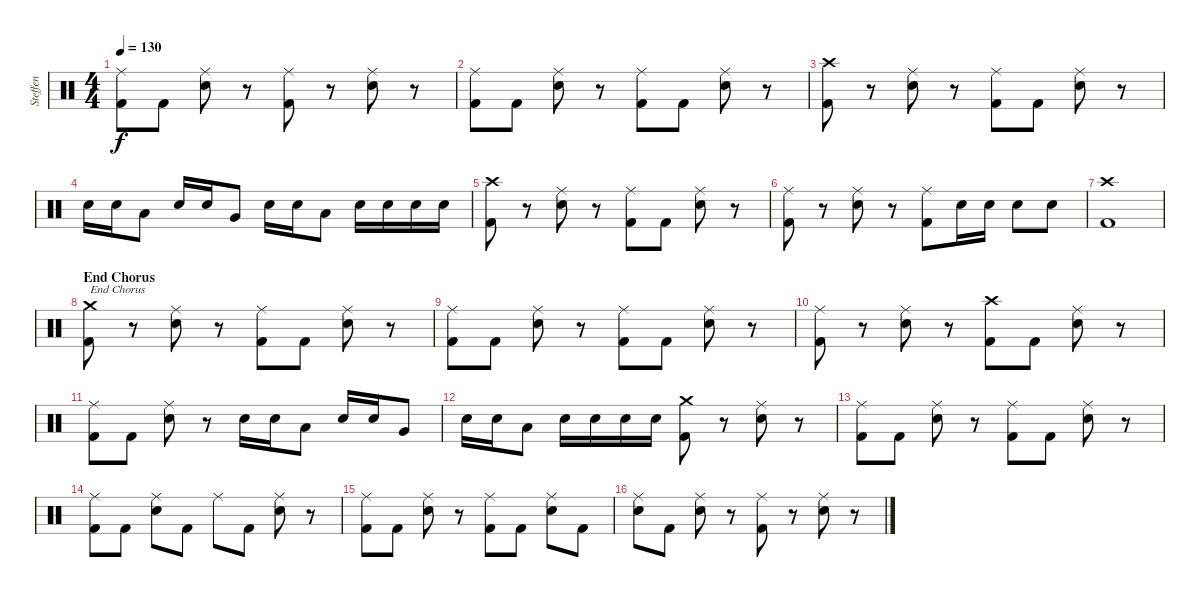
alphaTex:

\track ("Steffen" "Steffen") {instrument percussion}
\staff {score}
\articulation defaults
\ts (4 4)
\tempo 130
\clef neutral
\ks c
("Ride (middle)" "Kick (hit) 2").8{dy f} "Kick (hit) 2".8 ("Ride (middle)" "Snare (hit) 2").8 r.8 ("Ride (middle)" "Kick (hit) 2").8 r.8 ("Ride (middle)" "Snare (hit) 2").8 r.8 |
("Ride (middle)" "Kick (hit) 2").8 "Kick (hit) 2".8 ("Ride (middle)" "Snare (hit) 2").8 r.8 ("Ride (middle)" "Kick (hit) 2").8 "Kick (hit) 2".8 ("Ride (middle)" "Snare (hit) 2").8 r.8 |
("Crash high (hit)" "Kick (hit) 2").8 r.8 ("Ride (middle)" "Snare (hit) 2").8 r.8 ("Ride (middle)" "Kick (hit) 2").8 "Kick (hit) 2".8 ("Ride (middle)" "Snare (hit) 2").8 r.8 |
"Snare (hit) 2".16 "Snare (hit) 2".16 "Low Tom (hit)".8 "Snare (hit) 2".16 "Snare (hit) 2".16 "Very Low Tom (hit)".8 "Snare (hit) 2".16 "Snare (hit) 2".16 "Low Floor Tom (hit)".8 "Snare (hit) 2".16 "Snare (hit) 2".16 "Snare (hit) 2".16 "Snare (hit) 2".16 |
("Crash high (hit)" "Kick (hit) 2").8 r.8 ("Ride (middle)" "Snare (hit) 2").8 r.8 ("Ride (middle)" "Kick (hit) 2").8 "Kick (hit) 2".8 ("Ride (middle)" "Snare (hit) 2").8 r.8 |
("Ride (middle)" "Kick (hit) 2").8 r.8 ("Ride (middle)" "Snare (hit) 2").8 r.8 ("Ride (middle)" "Kick (hit) 2").8 "Snare (hit) 2".16 "Snare (hit) 2".16 "Snare (hit) 2".8 "Snare (hit) 2".8 |
("Crash high (hit)" "Kick (hit) 2").1 |
\section ("" "End Chorus")
("Crash medium (hit)" "Kick (hit) 2").8{txt "End Chorus"} r.8 ("Ride (middle)" "Snare (hit) 2").8 r.8 ("Ride (middle)" "Kick (hit) 2").8 "Kick (hit) 2".8 ("Ride (middle)" "Snare (hit) 2").8 r.8 |
("Ride (middle)" "Kick (hit) 2").8 "Kick (hit) 2".8 ("Ride (middle)" "Snare (hit) 2").8 r.8 ("Ride (middle)" "Kick (hit) 2").8 "Kick (hit) 2".8 ("Ride (middle)" "Snare (hit) 2").8 r.8 |
("Ride (middle)" "Kick (hit) 2").8 r.8 ("Ride (middle)" "Snare (hit) 2").8 r.8 ("Crash high (hit)" "Kick (hit) 2").8 "Kick (hit) 2".8 ("Ride (middle)" "Snare (hit) 2").8 r.8 |
("Ride (middle)" "Kick (hit) 2").8 "Kick (hit) 2".8 ("Ride (middle)" "Snare (hit) 2").8 r.8 "Snare (hit) 2".16 "Snare (hit) 2".16 "Low Tom (hit)".8 "Snare (hit) 2".16 "Snare (hit) 2".16 "Very Low Tom (hit)".8 |
"Snare (hit) 2".16 "Snare (hit) 2".16 "Low Floor Tom (hit)".8 "Snare (hit) 2".16 "Snare (hit) 2".16 "Snare (hit) 2".16 "Snare (hit) 2".16 ("Crash medium (hit)" "Kick (hit) 2").8 r.8 ("Ride (middle)" "Snare (hit) 2").8 r.8 |
("Ride (middle)" "Kick (hit) 2").8 "Kick (hit) 2".8 ("Ride (middle)" "Snare (hit) 2").8 r.8 ("Ride (middle)" "Kick (hit) 2").8 "Kick (hit) 2".8 ("Ride (middle)" "Snare (hit) 2").8 r.8 |
("Ride (middle)" "Kick (hit) 2").8 "Kick (hit) 2".8 ("Ride (middle)" "Snare (hit) 2").8 "Kick (hit) 2".8 "Ride (middle)".8 "Kick (hit) 2".8 ("Ride (middle)" "Snare (hit) 2").8 r.8 |
("Ride (middle)" "Kick (hit) 2").8 "Kick (hit) 2".8 ("Ride (middle)" "Snare (hit) 2").8 r.8 ("Ride (middle)" "Kick (hit) 2").8 "Kick (hit) 2".8 ("Ride (middle)" "Snare (hit) 2").8 "Kick (hit) 2".8 |
("Ride (middle)" "Snare (hit) 2").8 "Kick (hit) 2".8 ("Ride (middle)" "Snare (hit) 2").8 r.8 ("Ride (middle)" "Kick (hit) 2").8 r.8 ("Ride (middle)" "Snare (hit) 2").8 r.8
